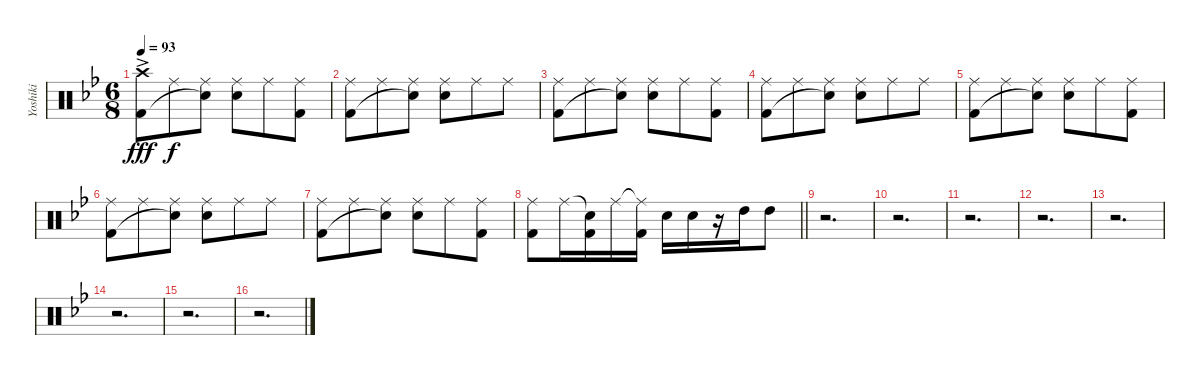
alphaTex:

\track ("Yoshiki" "Yoshiki") {instrument percussion}
\staff {score}
\articulation defaults
\ts (6 8)
\tempo 93
\clef neutral
\ks bb
("Crash high (hit)"{ac} "Kick (hit) 2"{ac}).8{dy fff} "Ride (middle)".8{dy f} ("Ride (middle)" "Snare (hit)"{t}).8 ("Ride (middle)" "Snare (hit) 2").8 "Ride (middle)".8 ("Ride (middle)" "Kick (hit) 2").8 |
("Ride (middle)" "Kick (hit) 2").8 "Ride (middle)".8 ("Ride (middle)" "Snare (hit)"{t}).8 ("Ride (middle)" "Snare (hit) 2").8 "Ride (middle)".8 "Ride (middle)".8 |
("Ride (middle)" "Kick (hit) 2").8 "Ride (middle)".8 ("Ride (middle)" "Snare (hit)"{t}).8 ("Ride (middle)" "Snare (hit) 2").8 "Ride (middle)".8 ("Ride (middle)" "Kick (hit) 2").8 |
("Ride (middle)" "Kick (hit) 2").8 "Ride (middle)".8 ("Ride (middle)" "Snare (hit)"{t}).8 ("Ride (middle)" "Snare (hit) 2").8 "Ride (middle)".8 "Ride (middle)".8 |
("Ride (middle)" "Kick (hit) 2").8 "Ride (middle)".8 ("Ride (middle)" "Snare (hit)"{t}).8 ("Ride (middle)" "Snare (hit) 2").8 "Ride (middle)".8 ("Ride (middle)" "Kick (hit) 2").8 |
("Ride (middle)" "Kick (hit) 2").8 "Ride (middle)".8 ("Ride (middle)" "Snare (hit)"{t}).8 ("Ride (middle)" "Snare (hit) 2").8 "Ride (middle)".8 "Ride (middle)".8 |
("Ride (middle)" "Kick (hit) 2").8 "Ride (middle)".8 ("Ride (middle)" "Snare (hit)"{t}).8 ("Ride (middle)" "Snare (hit) 2").8 "Ride (middle)".8 ("Ride (middle)" "Kick (hit) 2").8 |
\barLineRight lightlight
("Ride (middle)" "Kick (hit) 2").8 "Ride (middle)".16 ("Snare (hit)"{t} "Kick (hit) 2").16 "Ride (middle)".16 ("Ride (middle)"{t} "Kick (hit) 2").16 "Snare (hit) 2".16 "Snare (hit) 2".16 r.16 "High Tom (hit)".16 "High Tom (hit)".8 |
r.2{d} |
r.2{d} |
r.2{d} |
r.2{d} |
r.2{d} |
r.2{d} |
r.2{d} |
r.2{d}
